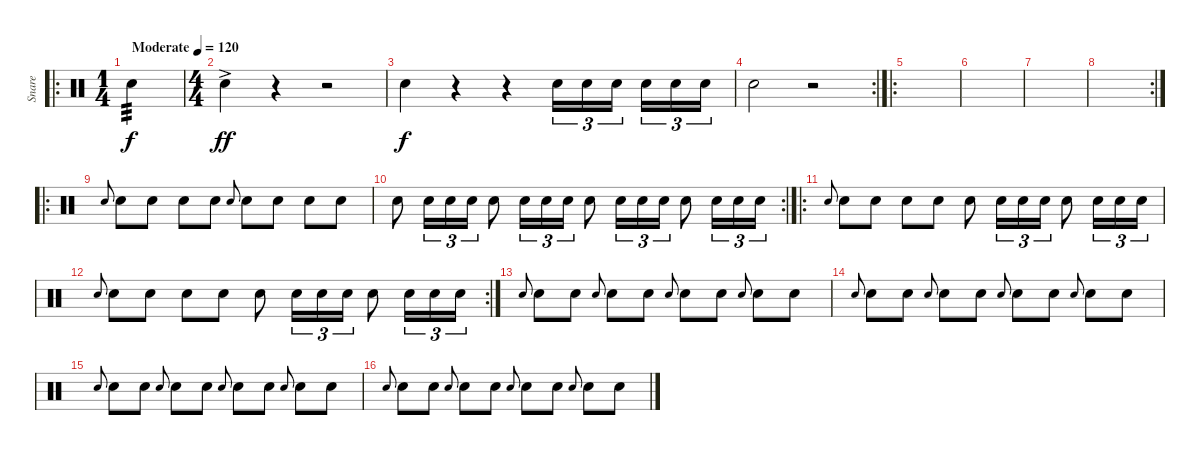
\track ("Snare" "Snare") {instrument percussion}
\staff {score}
\articulation defaults
\ro
\ts (1 4)
\tempo (120 "Moderate")
\clef neutral
\ks c "Snare (hit) 2".4{tp 3 dy f}
|
\ts (4 4)
"Snare (hit) 2"{ac}.4{dy ff} r.4 r.2 |
"Snare (hit) 2".4{dy f} r.4 r.4 "Snare (hit) 2".16{tu (3 2)} "Snare (hit) 2".16{tu (3 2)} "Snare (hit) 2".16{tu (3 2) beam splitsecondary} "Snare (hit) 2".16{tu (3 2)} "Snare (hit) 2".16{tu (3 2)} "Snare (hit) 2".16{tu (3 2)} |
\rc 2 "Snare (hit) 2".2
r.2 |
\ro
|
|
|
\rc 2
|
\ro "Snare (hit) 2".8{gr onbeat} "Snare (hit) 2".8 "Snare (hit) 2".8 "Snare (hit) 2".8 "Snare (hit) 2".8 "Snare (hit) 2".8{gr onbeat} "Snare (hit) 2".8 "Snare (hit) 2".8 "Snare (hit) 2".8 "Snare (hit) 2".8
|
\rc 2 "Snare (hit) 2".8 "Snare (hit) 2".16{tu (3 2)} "Snare (hit) 2".16{tu (3 2)} "Snare (hit) 2".16{tu (3 2)} "Snare (hit) 2".8 "Snare (hit) 2".16{tu (3 2)} "Snare (hit) 2".16{tu (3 2)} "Snare (hit) 2".16{tu (3 2)} "Snare (hit) 2".8 "Snare (hit) 2".16{tu (3 2)} "Snare (hit) 2".16{tu (3 2)} "Snare (hit) 2".16{tu (3 2)} "Snare (hit) 2".8 "Snare (hit) 2".16{tu (3 2)} "Snare (hit) 2".16{tu (3 2)} "Snare (hit) 2".16{tu (3 2)}
|
\ro "Snare (hit) 2".8{gr onbeat} "Snare (hit) 2".8 "Snare (hit) 2".8 "Snare (hit) 2".8 "Snare (hit) 2".8 "Snare (hit) 2".8 "Snare (hit) 2".16{tu (3 2)} "Snare (hit) 2".16{tu (3 2)} "Snare (hit) 2".16{tu (3 2)} "Snare (hit) 2".8 "Snare (hit) 2".16{tu (3 2)} "Snare (hit) 2".16{tu (3 2)} "Snare (hit) 2".16{tu (3 2)}
|
\rc 2 "Snare (hit) 2".8{gr onbeat} "Snare (hit) 2".8 "Snare (hit) 2".8 "Snare (hit) 2".8 "Snare (hit) 2".8 "Snare (hit) 2".8 "Snare (hit) 2".16{tu (3 2)} "Snare (hit) 2".16{tu (3 2)} "Snare (hit) 2".16{tu (3 2)} "Snare (hit) 2".8 "Snare (hit) 2".16{tu (3 2)} "Snare (hit) 2".16{tu (3 2)} "Snare (hit) 2".16{tu (3 2)}
|
"Snare (hit) 2".8{gr onbeat} "Snare (hit) 2".8 "Snare (hit) 2".8 "Snare (hit) 2".8{gr onbeat} "Snare (hit) 2".8 "Snare (hit) 2".8 "Snare (hit) 2".8{gr onbeat} "Snare (hit) 2".8 "Snare (hit) 2".8 "Snare (hit) 2".8{gr onbeat} "Snare (hit) 2".8 "Snare (hit) 2".8 |
"Snare (hit) 2".8{gr onbeat} "Snare (hit) 2".8 "Snare (hit) 2".8 "Snare (hit) 2".8{gr onbeat} "Snare (hit) 2".8 "Snare (hit) 2".8 "Snare (hit) 2".8{gr onbeat} "Snare (hit) 2".8 "Snare (hit) 2".8 "Snare (hit) 2".8{gr onbeat} "Snare (hit) 2".8 "Snare (hit) 2".8 |
"Snare (hit) 2".8{gr onbeat} "Snare (hit) 2".8 "Snare (hit) 2".8 "Snare (hit) 2".8{gr onbeat} "Snare (hit) 2".8 "Snare (hit) 2".8 "Snare (hit) 2".8{gr onbeat} "Snare (hit) 2".8 "Snare (hit) 2".8 "Snare (hit) 2".8{gr onbeat} "Snare (hit) 2".8 "Snare (hit) 2".8 |
"Snare (hit) 2".8{gr onbeat} "Snare (hit) 2".8 "Snare (hit) 2".8 "Snare (hit) 2".8{gr onbeat} "Snare (hit) 2".8 "Snare (hit) 2".8 "Snare (hit) 2".8{gr onbeat} "Snare (hit) 2".8 "Snare (hit) 2".8 "Snare (hit) 2".8{gr onbeat} "Snare (hit) 2".8 "Snare (hit) 2".8
